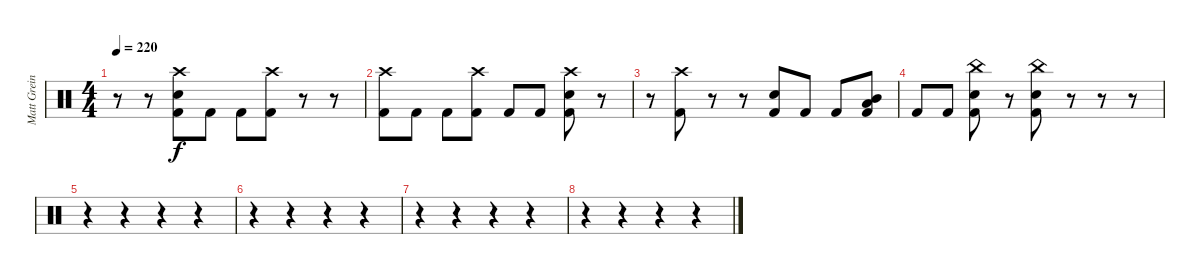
\track ("Matt Greiner (Drums)" "Matt Grein") {instrument percussion}
\staff {score}
\articulation defaults
\ts (4 4)
\tempo 220
\clef neutral
\ks c
r.8{dy f} r.8 ("Crash high (hit)" "Electric Snare (hit)" "Kick (hit) 2").8 "Kick (hit) 2".8 "Kick (hit) 2".8 ("Crash high (hit)" "Kick (hit) 2").8 r.8 r.8 |
("Crash high (hit)" "Kick (hit) 2").8 "Kick (hit) 2".8 "Kick (hit) 2".8 ("Crash high (hit)" "Kick (hit) 2").8 "Kick (hit) 2".8 "Kick (hit) 2".8 ("Crash high (hit)" "Electric Snare (hit)" "Kick (hit) 2").8 r.8 |
r.8 ("Crash high (hit)" "Kick (hit) 2").8 r.8 r.8 ("Electric Snare (hit)" "Kick (hit) 2").8 "Kick (hit) 2".8 "Kick (hit) 2".8 ("Mid Tom (hit)" "Low Floor Tom (hit)" "Kick (hit) 2").8 |
"Kick (hit) 2".8 "Kick (hit) 2".8 ("China (hit)" "Electric Snare (hit)" "Kick (hit) 2").8 r.8 ("China (hit)" "Electric Snare (hit)" "Kick (hit) 2").8 r.8 r.8 r.8 |
r.4 r.4 r.4 r.4 |
r.4 r.4 r.4 r.4 |
r.4 r.4 r.4 r.4 |
r.4 r.4 r.4 r.4
